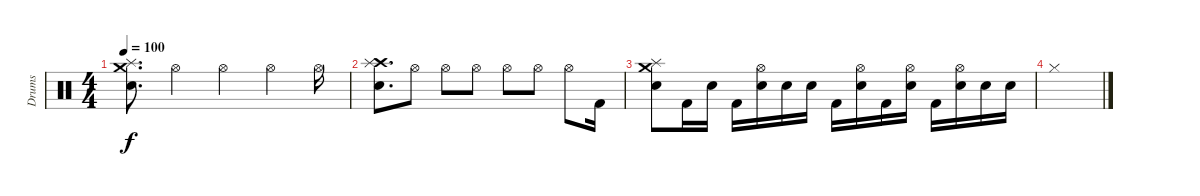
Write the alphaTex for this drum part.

\track ("Drums" "Drums") {instrument percussion}
\staff {score}
\articulation defaults
\ts (4 4)
\tempo 100
\clef neutral
\ks c
("Crash medium (hit)" "Splash (hit)" "Snare (hit) 2").8{d dy f} "Hi-Hat (open)".4 "Hi-Hat (open)".4 "Hi-Hat (open)".4 "Hi-Hat (open)".16 |
("Crash high (hit)" "Splash (hit)" "Snare (hit) 2").8{d} "Hi-Hat (open)".8 "Hi-Hat (open)".8 "Hi-Hat (open)".8 "Hi-Hat (open)".8 "Hi-Hat (open)".8 "Hi-Hat (open)".8 "Kick (hit) 2".16 |
("Crash medium (hit)" "Splash (hit)" "Snare (hit) 2").8 "Kick (hit) 2".16 "Snare (hit) 2".16 "Kick (hit) 2".16 ("Hi-Hat (open)" "Snare (hit) 2").16 "Snare (hit) 2".16 "Snare (hit) 2".16 "Kick (hit) 2".16 ("Hi-Hat (open)" "Snare (hit) 2").16 "Kick (hit) 2".16 ("Hi-Hat (open)" "Snare (hit) 2").16 "Kick (hit) 2".16 ("Hi-Hat (open)" "Snare (hit) 2").16 "Snare (hit) 2".16 "Snare (hit) 2".16 |
"Hi-Hat (closed)".1
